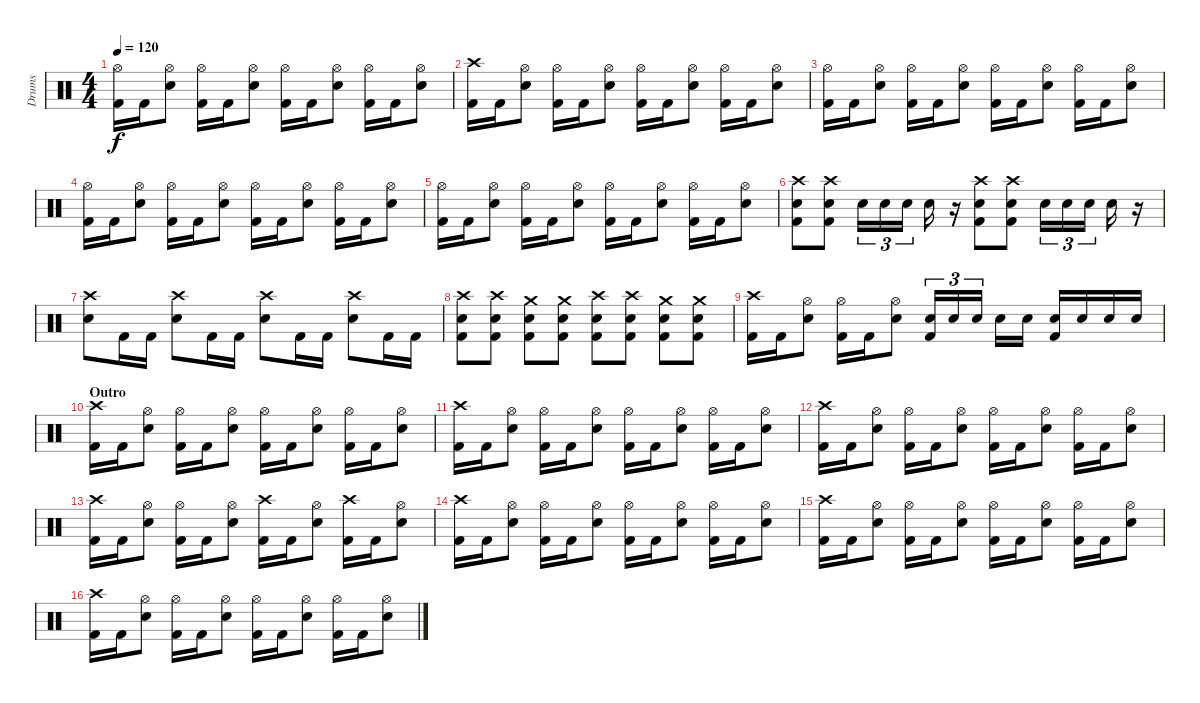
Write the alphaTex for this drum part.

\track ("Drums" "Drums") {instrument percussion}
\staff {score}
\articulation defaults
\ts (4 4)
\tempo 120
\clef neutral
\ks c
("Hi-Hat (open)" "Kick (hit) 2").16{dy f} "Kick (hit) 2".16 ("Hi-Hat (open)" "Electric Snare (hit)").8 ("Hi-Hat (open)" "Kick (hit) 2").16 "Kick (hit) 2".16 ("Hi-Hat (open)" "Electric Snare (hit)").8 ("Hi-Hat (open)" "Kick (hit) 2").16 "Kick (hit) 2".16 ("Hi-Hat (open)" "Electric Snare (hit)").8 ("Hi-Hat (open)" "Kick (hit) 2").16 "Kick (hit) 2".16 ("Hi-Hat (open)" "Electric Snare (hit)").8 |
("Crash high (hit)" "Kick (hit) 2").16 "Kick (hit) 2".16 ("Hi-Hat (open)" "Electric Snare (hit)").8 ("Hi-Hat (open)" "Kick (hit) 2").16 "Kick (hit) 2".16 ("Hi-Hat (open)" "Electric Snare (hit)").8 ("Hi-Hat (open)" "Kick (hit) 2").16 "Kick (hit) 2".16 ("Hi-Hat (open)" "Electric Snare (hit)").8 ("Hi-Hat (open)" "Kick (hit) 2").16 "Kick (hit) 2".16 ("Hi-Hat (open)" "Electric Snare (hit)").8 |
("Hi-Hat (open)" "Kick (hit) 2").16 "Kick (hit) 2".16 ("Hi-Hat (open)" "Electric Snare (hit)").8 ("Hi-Hat (open)" "Kick (hit) 2").16 "Kick (hit) 2".16 ("Hi-Hat (open)" "Electric Snare (hit)").8 ("Hi-Hat (open)" "Kick (hit) 2").16 "Kick (hit) 2".16 ("Hi-Hat (open)" "Electric Snare (hit)").8 ("Hi-Hat (open)" "Kick (hit) 2").16 "Kick (hit) 2".16 ("Hi-Hat (open)" "Electric Snare (hit)").8 |
("Hi-Hat (open)" "Kick (hit) 2").16 "Kick (hit) 2".16 ("Hi-Hat (open)" "Electric Snare (hit)").8 ("Hi-Hat (open)" "Kick (hit) 2").16 "Kick (hit) 2".16 ("Hi-Hat (open)" "Electric Snare (hit)").8 ("Hi-Hat (open)" "Kick (hit) 2").16 "Kick (hit) 2".16 ("Hi-Hat (open)" "Electric Snare (hit)").8 ("Hi-Hat (open)" "Kick (hit) 2").16 "Kick (hit) 2".16 ("Hi-Hat (open)" "Electric Snare (hit)").8 |
("Hi-Hat (open)" "Kick (hit) 2").16 "Kick (hit) 2".16 ("Hi-Hat (open)" "Electric Snare (hit)").8 ("Hi-Hat (open)" "Kick (hit) 2").16 "Kick (hit) 2".16 ("Hi-Hat (open)" "Electric Snare (hit)").8 ("Hi-Hat (open)" "Kick (hit) 2").16 "Kick (hit) 2".16 ("Hi-Hat (open)" "Electric Snare (hit)").8 ("Hi-Hat (open)" "Kick (hit) 2").16 "Kick (hit) 2".16 ("Hi-Hat (open)" "Electric Snare (hit)").8 |
("Crash high (hit)" "Electric Snare (hit)" "Kick (hit) 2").8 ("Crash high (hit)" "Electric Snare (hit)" "Kick (hit) 2").8 "Electric Snare (hit)".16{tu (3 2)} "Electric Snare (hit)".16{tu (3 2)} "Electric Snare (hit)".16{tu (3 2)} "Electric Snare (hit)".16 r.16 ("Crash high (hit)" "Electric Snare (hit)" "Kick (hit) 2").8 ("Crash high (hit)" "Electric Snare (hit)" "Kick (hit) 2").8 "Electric Snare (hit)".16{tu (3 2)} "Electric Snare (hit)".16{tu (3 2)} "Electric Snare (hit)".16{tu (3 2)} "Electric Snare (hit)".16 r.16 |
("Crash high (hit)" "Electric Snare (hit)").8 "Kick (hit) 2".16 "Kick (hit) 2".16 ("Crash high (hit)" "Electric Snare (hit)").8 "Kick (hit) 2".16 "Kick (hit) 2".16 ("Crash high (hit)" "Electric Snare (hit)").8 "Kick (hit) 2".16 "Kick (hit) 2".16 ("Crash high (hit)" "Electric Snare (hit)").8 "Kick (hit) 2".16 "Kick (hit) 2".16 |
("Crash high (hit)" "Electric Snare (hit)" "Kick (hit) 2").8 ("Crash high (hit)" "Electric Snare (hit)" "Kick (hit) 2").8 ("Crash medium (hit)" "Electric Snare (hit)" "Kick (hit) 2").8 ("Crash medium (hit)" "Electric Snare (hit)" "Kick (hit) 2").8 ("Crash high (hit)" "Electric Snare (hit)" "Kick (hit) 2").8 ("Crash high (hit)" "Electric Snare (hit)" "Kick (hit) 2").8 ("Crash medium (hit)" "Electric Snare (hit)" "Kick (hit) 2").8 ("Crash medium (hit)" "Electric Snare (hit)" "Kick (hit) 2").8 |
("Crash high (hit)" "Kick (hit) 2").16 "Kick (hit) 2".16 ("Hi-Hat (open)" "Electric Snare (hit)").8 ("Hi-Hat (open)" "Kick (hit) 2").16 "Kick (hit) 2".16 ("Hi-Hat (open)" "Electric Snare (hit)").8 ("Electric Snare (hit)" "Kick (hit) 2").16{tu (3 2)} "Electric Snare (hit)".16{tu (3 2)} "Electric Snare (hit)".16{tu (3 2)} "Electric Snare (hit)".16 "Electric Snare (hit)".16 ("Electric Snare (hit)" "Kick (hit) 2").16 "Electric Snare (hit)".16 "Electric Snare (hit)".16 "Electric Snare (hit)".16 |
\section ("" "Outro")
("Crash high (hit)" "Kick (hit) 2").16 "Kick (hit) 2".16 ("Hi-Hat (open)" "Electric Snare (hit)").8 ("Hi-Hat (open)" "Kick (hit) 2").16 "Kick (hit) 2".16 ("Hi-Hat (open)" "Electric Snare (hit)").8 ("Hi-Hat (open)" "Kick (hit) 2").16 "Kick (hit) 2".16 ("Hi-Hat (open)" "Electric Snare (hit)").8 ("Hi-Hat (open)" "Kick (hit) 2").16 "Kick (hit) 2".16 ("Hi-Hat (open)" "Electric Snare (hit)").8 |
("Crash high (hit)" "Kick (hit) 2").16 "Kick (hit) 2".16 ("Hi-Hat (open)" "Electric Snare (hit)").8 ("Hi-Hat (open)" "Kick (hit) 2").16 "Kick (hit) 2".16 ("Hi-Hat (open)" "Electric Snare (hit)").8 ("Hi-Hat (open)" "Kick (hit) 2").16 "Kick (hit) 2".16 ("Hi-Hat (open)" "Electric Snare (hit)").8 ("Hi-Hat (open)" "Kick (hit) 2").16 "Kick (hit) 2".16 ("Hi-Hat (open)" "Electric Snare (hit)").8 |
("Crash high (hit)" "Kick (hit) 2").16 "Kick (hit) 2".16 ("Hi-Hat (open)" "Electric Snare (hit)").8 ("Hi-Hat (open)" "Kick (hit) 2").16 "Kick (hit) 2".16 ("Hi-Hat (open)" "Electric Snare (hit)").8 ("Hi-Hat (open)" "Kick (hit) 2").16 "Kick (hit) 2".16 ("Hi-Hat (open)" "Electric Snare (hit)").8 ("Hi-Hat (open)" "Kick (hit) 2").16 "Kick (hit) 2".16 ("Hi-Hat (open)" "Electric Snare (hit)").8 |
("Crash high (hit)" "Kick (hit) 2").16 "Kick (hit) 2".16 ("Hi-Hat (open)" "Electric Snare (hit)").8 ("Hi-Hat (open)" "Kick (hit) 2").16 "Kick (hit) 2".16 ("Hi-Hat (open)" "Electric Snare (hit)").8 ("Crash high (hit)" "Kick (hit) 2").16 "Kick (hit) 2".16 ("Hi-Hat (open)" "Electric Snare (hit)").8 ("Crash high (hit)" "Kick (hit) 2").16 "Kick (hit) 2".16 ("Hi-Hat (open)" "Electric Snare (hit)").8 |
("Crash high (hit)" "Kick (hit) 2").16 "Kick (hit) 2".16 ("Hi-Hat (open)" "Electric Snare (hit)").8 ("Hi-Hat (open)" "Kick (hit) 2").16 "Kick (hit) 2".16 ("Hi-Hat (open)" "Electric Snare (hit)").8 ("Hi-Hat (open)" "Kick (hit) 2").16 "Kick (hit) 2".16 ("Hi-Hat (open)" "Electric Snare (hit)").8 ("Hi-Hat (open)" "Kick (hit) 2").16 "Kick (hit) 2".16 ("Hi-Hat (open)" "Electric Snare (hit)").8 |
("Crash high (hit)" "Kick (hit) 2").16 "Kick (hit) 2".16 ("Hi-Hat (open)" "Electric Snare (hit)").8 ("Hi-Hat (open)" "Kick (hit) 2").16 "Kick (hit) 2".16 ("Hi-Hat (open)" "Electric Snare (hit)").8 ("Hi-Hat (open)" "Kick (hit) 2").16 "Kick (hit) 2".16 ("Hi-Hat (open)" "Electric Snare (hit)").8 ("Hi-Hat (open)" "Kick (hit) 2").16 "Kick (hit) 2".16 ("Hi-Hat (open)" "Electric Snare (hit)").8 |
("Crash high (hit)" "Kick (hit) 2").16 "Kick (hit) 2".16 ("Hi-Hat (open)" "Electric Snare (hit)").8 ("Hi-Hat (open)" "Kick (hit) 2").16 "Kick (hit) 2".16 ("Hi-Hat (open)" "Electric Snare (hit)").8 ("Hi-Hat (open)" "Kick (hit) 2").16 "Kick (hit) 2".16 ("Hi-Hat (open)" "Electric Snare (hit)").8 ("Hi-Hat (open)" "Kick (hit) 2").16 "Kick (hit) 2".16 ("Hi-Hat (open)" "Electric Snare (hit)").8
